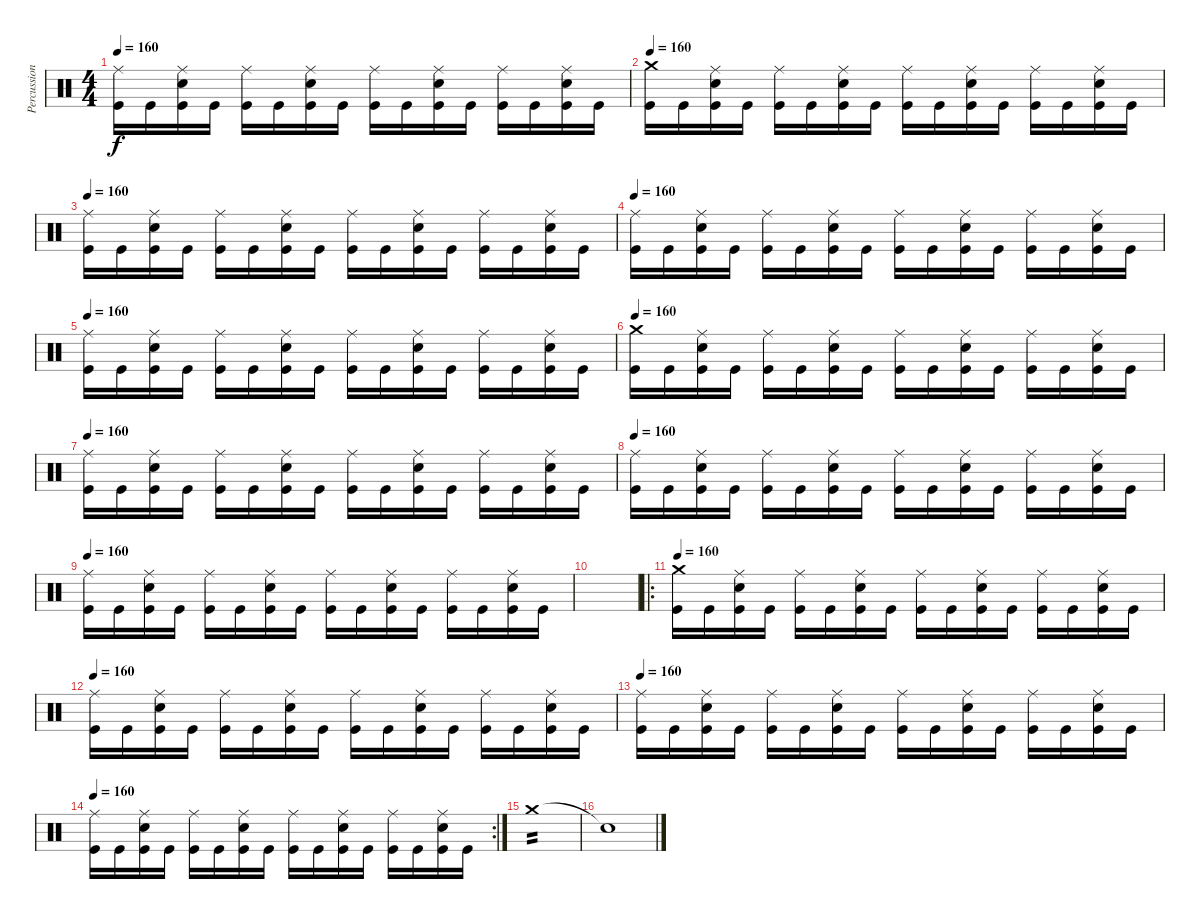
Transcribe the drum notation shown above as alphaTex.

\track ("Percussions" "Percussion") {instrument percussion}
\staff {score}
\articulation defaults
\ts (4 4)
\tempo 160
\clef neutral
\ks c
("Kick (hit)" "Ride (middle)").16{dy f} "Kick (hit)".16 ("Kick (hit)" "Ride (middle)" "Snare (hit) 2").16 "Kick (hit)".16 ("Kick (hit)" "Ride (middle)").16 "Kick (hit)".16 ("Kick (hit)" "Ride (middle)" "Snare (hit) 2").16 "Kick (hit)".16 ("Kick (hit)" "Ride (middle)").16 "Kick (hit)".16 ("Kick (hit)" "Ride (middle)" "Snare (hit) 2").16 "Kick (hit)".16 ("Kick (hit)" "Ride (middle)").16 "Kick (hit)".16 ("Kick (hit)" "Ride (middle)" "Snare (hit) 2").16 "Kick (hit)".16 |
\tempo 160
("Kick (hit)" "Crash medium (hit)").16 "Kick (hit)".16 ("Kick (hit)" "Ride (middle)" "Snare (hit) 2").16 "Kick (hit)".16 ("Kick (hit)" "Ride (middle)").16 "Kick (hit)".16 ("Kick (hit)" "Ride (middle)" "Snare (hit) 2").16 "Kick (hit)".16 ("Kick (hit)" "Ride (middle)").16 "Kick (hit)".16 ("Kick (hit)" "Ride (middle)" "Snare (hit) 2").16 "Kick (hit)".16 ("Kick (hit)" "Ride (middle)").16 "Kick (hit)".16 ("Kick (hit)" "Ride (middle)" "Snare (hit) 2").16 "Kick (hit)".16 |
\tempo 160
("Kick (hit)" "Ride (middle)").16 "Kick (hit)".16 ("Kick (hit)" "Ride (middle)" "Snare (hit) 2").16 "Kick (hit)".16 ("Kick (hit)" "Ride (middle)").16 "Kick (hit)".16 ("Kick (hit)" "Ride (middle)" "Snare (hit) 2").16 "Kick (hit)".16 ("Kick (hit)" "Ride (middle)").16 "Kick (hit)".16 ("Kick (hit)" "Ride (middle)" "Snare (hit) 2").16 "Kick (hit)".16 ("Kick (hit)" "Ride (middle)").16 "Kick (hit)".16 ("Kick (hit)" "Ride (middle)" "Snare (hit) 2").16 "Kick (hit)".16 |
\tempo 160
("Kick (hit)" "Ride (middle)").16 "Kick (hit)".16 ("Kick (hit)" "Ride (middle)" "Snare (hit) 2").16 "Kick (hit)".16 ("Kick (hit)" "Ride (middle)").16 "Kick (hit)".16 ("Kick (hit)" "Ride (middle)" "Snare (hit) 2").16 "Kick (hit)".16 ("Kick (hit)" "Ride (middle)").16 "Kick (hit)".16 ("Kick (hit)" "Ride (middle)" "Snare (hit) 2").16 "Kick (hit)".16 ("Kick (hit)" "Ride (middle)").16 "Kick (hit)".16 ("Kick (hit)" "Ride (middle)" "Snare (hit) 2").16 "Kick (hit)".16 |
\tempo 160
("Kick (hit)" "Ride (middle)").16 "Kick (hit)".16 ("Kick (hit)" "Ride (middle)" "Snare (hit) 2").16 "Kick (hit)".16 ("Kick (hit)" "Ride (middle)").16 "Kick (hit)".16 ("Kick (hit)" "Ride (middle)" "Snare (hit) 2").16 "Kick (hit)".16 ("Kick (hit)" "Ride (middle)").16 "Kick (hit)".16 ("Kick (hit)" "Ride (middle)" "Snare (hit) 2").16 "Kick (hit)".16 ("Kick (hit)" "Ride (middle)").16 "Kick (hit)".16 ("Kick (hit)" "Ride (middle)" "Snare (hit) 2").16 "Kick (hit)".16 |
\tempo 160
("Kick (hit)" "Crash medium (hit)").16 "Kick (hit)".16 ("Kick (hit)" "Ride (middle)" "Snare (hit) 2").16 "Kick (hit)".16 ("Kick (hit)" "Ride (middle)").16 "Kick (hit)".16 ("Kick (hit)" "Ride (middle)" "Snare (hit) 2").16 "Kick (hit)".16 ("Kick (hit)" "Ride (middle)").16 "Kick (hit)".16 ("Kick (hit)" "Ride (middle)" "Snare (hit) 2").16 "Kick (hit)".16 ("Kick (hit)" "Ride (middle)").16 "Kick (hit)".16 ("Kick (hit)" "Ride (middle)" "Snare (hit) 2").16 "Kick (hit)".16 |
\tempo 160
("Kick (hit)" "Ride (middle)").16 "Kick (hit)".16 ("Kick (hit)" "Ride (middle)" "Snare (hit) 2").16 "Kick (hit)".16 ("Kick (hit)" "Ride (middle)").16 "Kick (hit)".16 ("Kick (hit)" "Ride (middle)" "Snare (hit) 2").16 "Kick (hit)".16 ("Kick (hit)" "Ride (middle)").16 "Kick (hit)".16 ("Kick (hit)" "Ride (middle)" "Snare (hit) 2").16 "Kick (hit)".16 ("Kick (hit)" "Ride (middle)").16 "Kick (hit)".16 ("Kick (hit)" "Ride (middle)" "Snare (hit) 2").16 "Kick (hit)".16 |
\tempo 160
("Kick (hit)" "Ride (middle)").16 "Kick (hit)".16 ("Kick (hit)" "Ride (middle)" "Snare (hit) 2").16 "Kick (hit)".16 ("Kick (hit)" "Ride (middle)").16 "Kick (hit)".16 ("Kick (hit)" "Ride (middle)" "Snare (hit) 2").16 "Kick (hit)".16 ("Kick (hit)" "Ride (middle)").16 "Kick (hit)".16 ("Kick (hit)" "Ride (middle)" "Snare (hit) 2").16 "Kick (hit)".16 ("Kick (hit)" "Ride (middle)").16 "Kick (hit)".16 ("Kick (hit)" "Ride (middle)" "Snare (hit) 2").16 "Kick (hit)".16 |
\tempo 160
("Kick (hit)" "Ride (middle)").16 "Kick (hit)".16 ("Kick (hit)" "Ride (middle)" "Snare (hit) 2").16 "Kick (hit)".16 ("Kick (hit)" "Ride (middle)").16 "Kick (hit)".16 ("Kick (hit)" "Ride (middle)" "Snare (hit) 2").16 "Kick (hit)".16 ("Kick (hit)" "Ride (middle)").16 "Kick (hit)".16 ("Kick (hit)" "Ride (middle)" "Snare (hit) 2").16 "Kick (hit)".16 ("Kick (hit)" "Ride (middle)").16 "Kick (hit)".16 ("Kick (hit)" "Ride (middle)" "Snare (hit) 2").16 "Kick (hit)".16 |
|
\ro
\tempo 160
("Kick (hit)" "Crash medium (hit)").16 "Kick (hit)".16 ("Kick (hit)" "Ride (middle)" "Snare (hit) 2").16 "Kick (hit)".16 ("Kick (hit)" "Ride (middle)").16 "Kick (hit)".16 ("Kick (hit)" "Ride (middle)" "Snare (hit) 2").16 "Kick (hit)".16 ("Kick (hit)" "Ride (middle)").16 "Kick (hit)".16 ("Kick (hit)" "Ride (middle)" "Snare (hit) 2").16 "Kick (hit)".16 ("Kick (hit)" "Ride (middle)").16 "Kick (hit)".16 ("Kick (hit)" "Ride (middle)" "Snare (hit) 2").16 "Kick (hit)".16 |
\tempo 160
("Kick (hit)" "Ride (middle)").16 "Kick (hit)".16 ("Kick (hit)" "Ride (middle)" "Snare (hit) 2").16 "Kick (hit)".16 ("Kick (hit)" "Ride (middle)").16 "Kick (hit)".16 ("Kick (hit)" "Ride (middle)" "Snare (hit) 2").16 "Kick (hit)".16 ("Kick (hit)" "Ride (middle)").16 "Kick (hit)".16 ("Kick (hit)" "Ride (middle)" "Snare (hit) 2").16 "Kick (hit)".16 ("Kick (hit)" "Ride (middle)").16 "Kick (hit)".16 ("Kick (hit)" "Ride (middle)" "Snare (hit) 2").16 "Kick (hit)".16 |
\tempo 160
("Kick (hit)" "Ride (middle)").16 "Kick (hit)".16 ("Kick (hit)" "Ride (middle)" "Snare (hit) 2").16 "Kick (hit)".16 ("Kick (hit)" "Ride (middle)").16 "Kick (hit)".16 ("Kick (hit)" "Ride (middle)" "Snare (hit) 2").16 "Kick (hit)".16 ("Kick (hit)" "Ride (middle)").16 "Kick (hit)".16 ("Kick (hit)" "Ride (middle)" "Snare (hit) 2").16 "Kick (hit)".16 ("Kick (hit)" "Ride (middle)").16 "Kick (hit)".16 ("Kick (hit)" "Ride (middle)" "Snare (hit) 2").16 "Kick (hit)".16 |
\rc 2
\tempo 160
("Kick (hit)" "Ride (middle)").16 "Kick (hit)".16 ("Kick (hit)" "Ride (middle)" "Snare (hit) 2").16 "Kick (hit)".16 ("Kick (hit)" "Ride (middle)").16 "Kick (hit)".16 ("Kick (hit)" "Ride (middle)" "Snare (hit) 2").16 "Kick (hit)".16 ("Kick (hit)" "Ride (middle)").16 "Kick (hit)".16 ("Kick (hit)" "Ride (middle)" "Snare (hit) 2").16 "Kick (hit)".16 ("Kick (hit)" "Ride (middle)").16 "Kick (hit)".16 ("Kick (hit)" "Ride (middle)" "Snare (hit) 2").16 "Kick (hit)".16 |
"Crash medium (hit)".1{tp 2} |
"Snare (hit)"{t}.1
